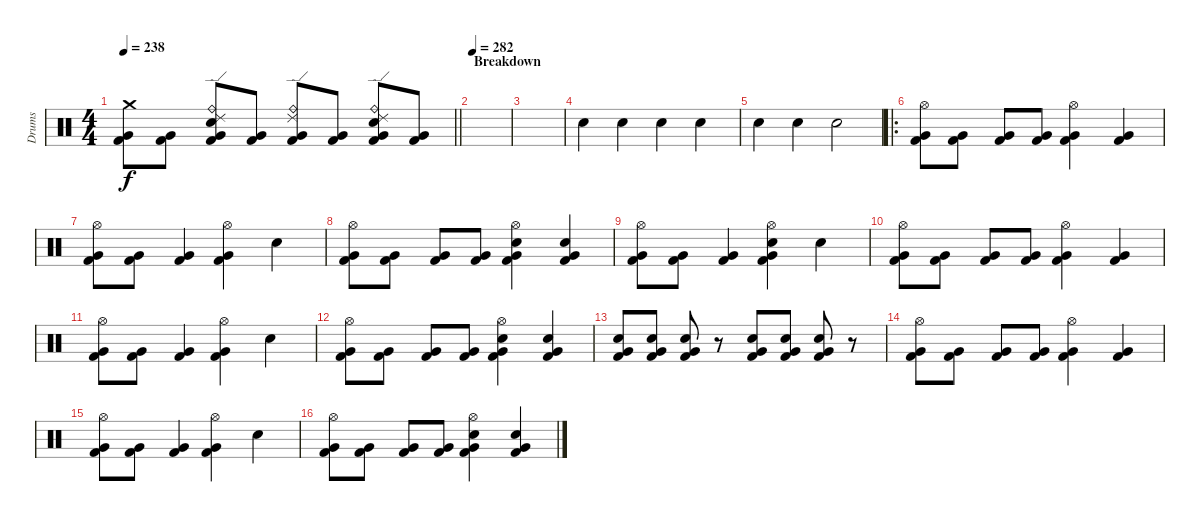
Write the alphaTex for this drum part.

\track ("Drums" "Drums") {instrument percussion}
\staff {score}
\articulation defaults
\ts (4 4)
\tempo 238
\clef neutral
\barLineRight lightlight
\ks c
("Crash medium (hit)" "Very Low Tom (hit)" "Kick (hit) 2").8{dy f} ("Very Low Tom (hit)" "Kick (hit) 2").8 ("Ride (bell)" "Ride (edge) 2" "Snare (hit) 2" "Very Low Tom (hit)" "Kick (hit) 2").8 ("Very Low Tom (hit)" "Kick (hit) 2").8 ("Ride (bell)" "Ride (edge) 2" "Very Low Tom (hit)" "Kick (hit) 2").8 ("Very Low Tom (hit)" "Kick (hit) 2").8 ("Ride (bell)" "Ride (edge) 2" "Snare (hit) 2" "Very Low Tom (hit)" "Kick (hit) 2").8 ("Very Low Tom (hit)" "Kick (hit) 2").8 |
\section ("" "Breakdown")
\tempo 282
|
|
"Snare (hit) 2".4 "Snare (hit) 2".4 "Snare (hit) 2".4 "Snare (hit) 2".4 |
"Snare (hit) 2".4 "Snare (hit) 2".4 "Snare (hit) 2".2 |
\ro
("Hi-Hat (open)" "Very Low Tom (hit)" "Kick (hit) 2").8 ("Very Low Tom (hit)" "Kick (hit) 2").8 ("Very Low Tom (hit)" "Kick (hit) 2").8 ("Very Low Tom (hit)" "Kick (hit) 2").8 ("Hi-Hat (open)" "Very Low Tom (hit)" "Kick (hit) 2").4 ("Very Low Tom (hit)" "Kick (hit) 2").4 |
("Hi-Hat (open)" "Very Low Tom (hit)" "Kick (hit) 2").8 ("Very Low Tom (hit)" "Kick (hit) 2").8 ("Very Low Tom (hit)" "Kick (hit) 2").4 ("Hi-Hat (open)" "Very Low Tom (hit)" "Kick (hit) 2").4 "Snare (hit) 2".4 |
("Hi-Hat (open)" "Very Low Tom (hit)" "Kick (hit) 2").8 ("Very Low Tom (hit)" "Kick (hit) 2").8 ("Very Low Tom (hit)" "Kick (hit) 2").8 ("Very Low Tom (hit)" "Kick (hit) 2").8 ("Hi-Hat (open)" "Snare (hit) 2" "Very Low Tom (hit)" "Kick (hit) 2").4 ("Snare (hit) 2" "Very Low Tom (hit)" "Kick (hit) 2").4 |
("Hi-Hat (open)" "Very Low Tom (hit)" "Kick (hit) 2").8 ("Very Low Tom (hit)" "Kick (hit) 2").8 ("Very Low Tom (hit)" "Kick (hit) 2").4 ("Hi-Hat (open)" "Snare (hit) 2" "Very Low Tom (hit)" "Kick (hit) 2").4 "Snare (hit) 2".4 |
("Hi-Hat (open)" "Very Low Tom (hit)" "Kick (hit) 2").8 ("Very Low Tom (hit)" "Kick (hit) 2").8 ("Very Low Tom (hit)" "Kick (hit) 2").8 ("Very Low Tom (hit)" "Kick (hit) 2").8 ("Hi-Hat (open)" "Very Low Tom (hit)" "Kick (hit) 2").4 ("Very Low Tom (hit)" "Kick (hit) 2").4 |
("Hi-Hat (open)" "Very Low Tom (hit)" "Kick (hit) 2").8 ("Very Low Tom (hit)" "Kick (hit) 2").8 ("Very Low Tom (hit)" "Kick (hit) 2").4 ("Hi-Hat (open)" "Very Low Tom (hit)" "Kick (hit) 2").4 "Snare (hit) 2".4 |
("Hi-Hat (open)" "Very Low Tom (hit)" "Kick (hit) 2").8 ("Very Low Tom (hit)" "Kick (hit) 2").8 ("Very Low Tom (hit)" "Kick (hit) 2").8 ("Very Low Tom (hit)" "Kick (hit) 2").8 ("Hi-Hat (open)" "Snare (hit) 2" "Very Low Tom (hit)" "Kick (hit) 2").4 ("Snare (hit) 2" "Very Low Tom (hit)" "Kick (hit) 2").4 |
("Snare (hit) 2" "Very Low Tom (hit)" "Kick (hit) 2").8 ("Snare (hit) 2" "Very Low Tom (hit)" "Kick (hit) 2").8 ("Snare (hit) 2" "Very Low Tom (hit)" "Kick (hit) 2").8 r.8 ("Snare (hit) 2" "Very Low Tom (hit)" "Kick (hit) 2").8 ("Snare (hit) 2" "Very Low Tom (hit)" "Kick (hit) 2").8 ("Snare (hit) 2" "Very Low Tom (hit)" "Kick (hit) 2").8 r.8 |
("Hi-Hat (open)" "Very Low Tom (hit)" "Kick (hit) 2").8 ("Very Low Tom (hit)" "Kick (hit) 2").8 ("Very Low Tom (hit)" "Kick (hit) 2").8 ("Very Low Tom (hit)" "Kick (hit) 2").8 ("Hi-Hat (open)" "Very Low Tom (hit)" "Kick (hit) 2").4 ("Very Low Tom (hit)" "Kick (hit) 2").4 |
("Hi-Hat (open)" "Very Low Tom (hit)" "Kick (hit) 2").8 ("Very Low Tom (hit)" "Kick (hit) 2").8 ("Very Low Tom (hit)" "Kick (hit) 2").4 ("Hi-Hat (open)" "Very Low Tom (hit)" "Kick (hit) 2").4 "Snare (hit) 2".4 |
("Hi-Hat (open)" "Very Low Tom (hit)" "Kick (hit) 2").8 ("Very Low Tom (hit)" "Kick (hit) 2").8 ("Very Low Tom (hit)" "Kick (hit) 2").8 ("Very Low Tom (hit)" "Kick (hit) 2").8 ("Hi-Hat (open)" "Snare (hit) 2" "Very Low Tom (hit)" "Kick (hit) 2").4 ("Snare (hit) 2" "Very Low Tom (hit)" "Kick (hit) 2").4
